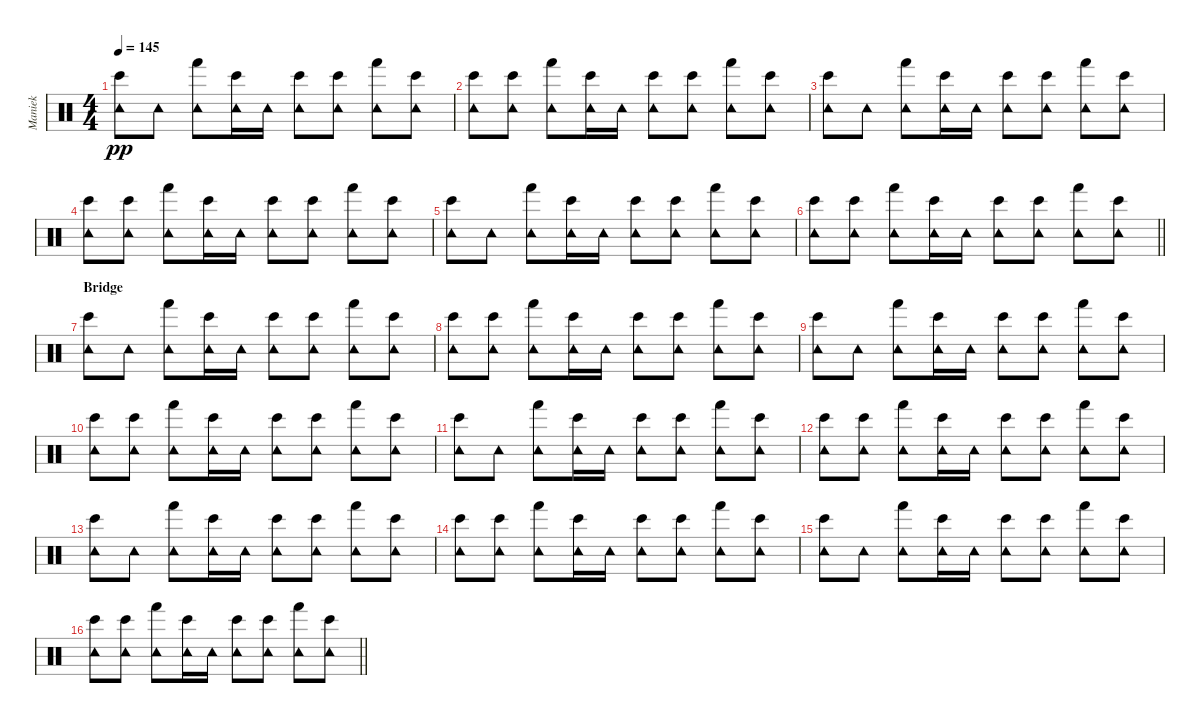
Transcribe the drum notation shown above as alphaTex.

\track ("Maniek" "Maniek") {instrument percussion}
\staff {score}
\articulation defaults
\ts (4 4)
\tempo 145
\clef neutral
\ks c
("Bongo High (hit)" "Tambourine (hit)").8{dy pp} "Tambourine (hit)".8 ("Hand (hit)" "Tambourine (hit)").8 ("Bongo High (hit)" "Tambourine (hit)").16 "Tambourine (hit)".16 ("Bongo High (hit)" "Tambourine (hit)").8 ("Bongo High (hit)" "Tambourine (hit)").8 ("Hand (hit)" "Tambourine (hit)").8 ("Bongo High (hit)" "Tambourine (hit)").8 |
("Bongo High (hit)" "Tambourine (hit)").8 ("Bongo High (hit)" "Tambourine (hit)").8 ("Hand (hit)" "Tambourine (hit)").8 ("Bongo High (hit)" "Tambourine (hit)").16 "Tambourine (hit)".16 ("Bongo High (hit)" "Tambourine (hit)").8 ("Bongo High (hit)" "Tambourine (hit)").8 ("Hand (hit)" "Tambourine (hit)").8 ("Bongo High (hit)" "Tambourine (hit)").8 |
("Bongo High (hit)" "Tambourine (hit)").8 "Tambourine (hit)".8 ("Hand (hit)" "Tambourine (hit)").8 ("Bongo High (hit)" "Tambourine (hit)").16 "Tambourine (hit)".16 ("Bongo High (hit)" "Tambourine (hit)").8 ("Bongo High (hit)" "Tambourine (hit)").8 ("Hand (hit)" "Tambourine (hit)").8 ("Bongo High (hit)" "Tambourine (hit)").8 |
("Bongo High (hit)" "Tambourine (hit)").8 ("Bongo High (hit)" "Tambourine (hit)").8 ("Hand (hit)" "Tambourine (hit)").8 ("Bongo High (hit)" "Tambourine (hit)").16 "Tambourine (hit)".16 ("Bongo High (hit)" "Tambourine (hit)").8 ("Bongo High (hit)" "Tambourine (hit)").8 ("Hand (hit)" "Tambourine (hit)").8 ("Bongo High (hit)" "Tambourine (hit)").8 |
("Bongo High (hit)" "Tambourine (hit)").8 "Tambourine (hit)".8 ("Hand (hit)" "Tambourine (hit)").8 ("Bongo High (hit)" "Tambourine (hit)").16 "Tambourine (hit)".16 ("Bongo High (hit)" "Tambourine (hit)").8 ("Bongo High (hit)" "Tambourine (hit)").8 ("Hand (hit)" "Tambourine (hit)").8 ("Bongo High (hit)" "Tambourine (hit)").8 |
\barLineRight lightlight
("Bongo High (hit)" "Tambourine (hit)").8 ("Bongo High (hit)" "Tambourine (hit)").8 ("Hand (hit)" "Tambourine (hit)").8 ("Bongo High (hit)" "Tambourine (hit)").16 "Tambourine (hit)".16 ("Bongo High (hit)" "Tambourine (hit)").8 ("Bongo High (hit)" "Tambourine (hit)").8 ("Hand (hit)" "Tambourine (hit)").8 ("Bongo High (hit)" "Tambourine (hit)").8 |
\section ("" "Bridge")
("Bongo High (hit)" "Tambourine (hit)").8 "Tambourine (hit)".8 ("Hand (hit)" "Tambourine (hit)").8 ("Bongo High (hit)" "Tambourine (hit)").16 "Tambourine (hit)".16 ("Bongo High (hit)" "Tambourine (hit)").8 ("Bongo High (hit)" "Tambourine (hit)").8 ("Hand (hit)" "Tambourine (hit)").8 ("Bongo High (hit)" "Tambourine (hit)").8 |
("Bongo High (hit)" "Tambourine (hit)").8 ("Bongo High (hit)" "Tambourine (hit)").8 ("Hand (hit)" "Tambourine (hit)").8 ("Bongo High (hit)" "Tambourine (hit)").16 "Tambourine (hit)".16 ("Bongo High (hit)" "Tambourine (hit)").8 ("Bongo High (hit)" "Tambourine (hit)").8 ("Hand (hit)" "Tambourine (hit)").8 ("Bongo High (hit)" "Tambourine (hit)").8 |
("Bongo High (hit)" "Tambourine (hit)").8 "Tambourine (hit)".8 ("Hand (hit)" "Tambourine (hit)").8 ("Bongo High (hit)" "Tambourine (hit)").16 "Tambourine (hit)".16 ("Bongo High (hit)" "Tambourine (hit)").8 ("Bongo High (hit)" "Tambourine (hit)").8 ("Hand (hit)" "Tambourine (hit)").8 ("Bongo High (hit)" "Tambourine (hit)").8 |
("Bongo High (hit)" "Tambourine (hit)").8 ("Bongo High (hit)" "Tambourine (hit)").8 ("Hand (hit)" "Tambourine (hit)").8 ("Bongo High (hit)" "Tambourine (hit)").16 "Tambourine (hit)".16 ("Bongo High (hit)" "Tambourine (hit)").8 ("Bongo High (hit)" "Tambourine (hit)").8 ("Hand (hit)" "Tambourine (hit)").8 ("Bongo High (hit)" "Tambourine (hit)").8 |
("Bongo High (hit)" "Tambourine (hit)").8 "Tambourine (hit)".8 ("Hand (hit)" "Tambourine (hit)").8 ("Bongo High (hit)" "Tambourine (hit)").16 "Tambourine (hit)".16 ("Bongo High (hit)" "Tambourine (hit)").8 ("Bongo High (hit)" "Tambourine (hit)").8 ("Hand (hit)" "Tambourine (hit)").8 ("Bongo High (hit)" "Tambourine (hit)").8 |
("Bongo High (hit)" "Tambourine (hit)").8 ("Bongo High (hit)" "Tambourine (hit)").8 ("Hand (hit)" "Tambourine (hit)").8 ("Bongo High (hit)" "Tambourine (hit)").16 "Tambourine (hit)".16 ("Bongo High (hit)" "Tambourine (hit)").8 ("Bongo High (hit)" "Tambourine (hit)").8 ("Hand (hit)" "Tambourine (hit)").8 ("Bongo High (hit)" "Tambourine (hit)").8 |
("Bongo High (hit)" "Tambourine (hit)").8 "Tambourine (hit)".8 ("Hand (hit)" "Tambourine (hit)").8 ("Bongo High (hit)" "Tambourine (hit)").16 "Tambourine (hit)".16 ("Bongo High (hit)" "Tambourine (hit)").8 ("Bongo High (hit)" "Tambourine (hit)").8 ("Hand (hit)" "Tambourine (hit)").8 ("Bongo High (hit)" "Tambourine (hit)").8 |
("Bongo High (hit)" "Tambourine (hit)").8 ("Bongo High (hit)" "Tambourine (hit)").8 ("Hand (hit)" "Tambourine (hit)").8 ("Bongo High (hit)" "Tambourine (hit)").16 "Tambourine (hit)".16 ("Bongo High (hit)" "Tambourine (hit)").8 ("Bongo High (hit)" "Tambourine (hit)").8 ("Hand (hit)" "Tambourine (hit)").8 ("Bongo High (hit)" "Tambourine (hit)").8 |
("Bongo High (hit)" "Tambourine (hit)").8 "Tambourine (hit)".8 ("Hand (hit)" "Tambourine (hit)").8 ("Bongo High (hit)" "Tambourine (hit)").16 "Tambourine (hit)".16 ("Bongo High (hit)" "Tambourine (hit)").8 ("Bongo High (hit)" "Tambourine (hit)").8 ("Hand (hit)" "Tambourine (hit)").8 ("Bongo High (hit)" "Tambourine (hit)").8 |
\barLineRight lightlight
("Bongo High (hit)" "Tambourine (hit)").8 ("Bongo High (hit)" "Tambourine (hit)").8 ("Hand (hit)" "Tambourine (hit)").8 ("Bongo High (hit)" "Tambourine (hit)").16 "Tambourine (hit)".16 ("Bongo High (hit)" "Tambourine (hit)").8 ("Bongo High (hit)" "Tambourine (hit)").8 ("Hand (hit)" "Tambourine (hit)").8 ("Bongo High (hit)" "Tambourine (hit)").8
